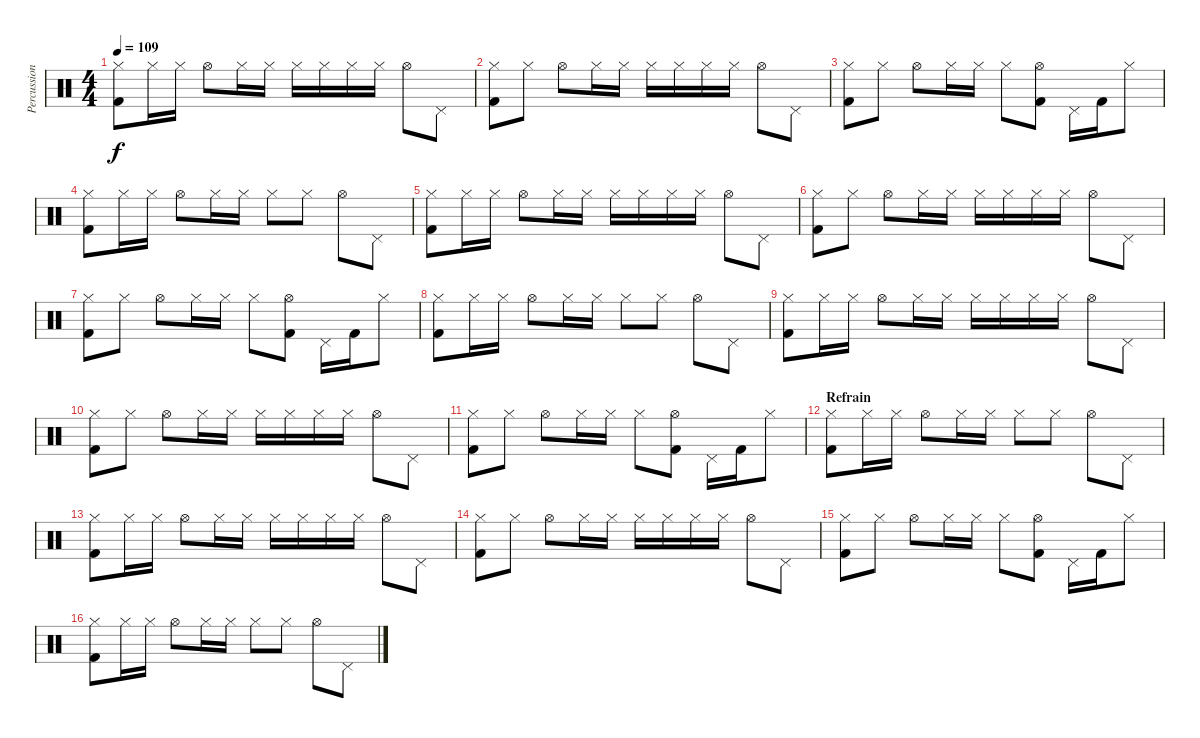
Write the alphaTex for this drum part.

\track ("Percussion" "Percussion") {instrument percussion}
\staff {score}
\articulation defaults
\ts (4 4)
\tempo 109
\clef neutral
\ks c
("Hi-Hat (closed)" "Kick (hit) 2").8{dy f} "Hi-Hat (closed)".16 "Hi-Hat (closed)".16 "Hi-Hat (open)".8 "Hi-Hat (closed)".16 "Hi-Hat (closed)".16 "Hi-Hat (closed)".16 "Hi-Hat (closed)".16 "Hi-Hat (closed)".16 "Hi-Hat (closed)".16 "Hi-Hat (open)".8 "Pedal Hi-Hat (hit)".8 |
("Hi-Hat (closed)" "Kick (hit) 2").8 "Hi-Hat (closed)".8 "Hi-Hat (open)".8 "Hi-Hat (closed)".16 "Hi-Hat (closed)".16 "Hi-Hat (closed)".16 "Hi-Hat (closed)".16 "Hi-Hat (closed)".16 "Hi-Hat (closed)".16 "Hi-Hat (open)".8 "Pedal Hi-Hat (hit)".8 |
("Hi-Hat (closed)" "Kick (hit) 2").8 "Hi-Hat (closed)".8 "Hi-Hat (open)".8 "Hi-Hat (closed)".16 "Hi-Hat (closed)".16 "Hi-Hat (closed)".8 ("Hi-Hat (open)" "Kick (hit) 2").8 "Pedal Hi-Hat (hit)".16 "Kick (hit) 2".16 "Hi-Hat (closed)".8 |
("Hi-Hat (closed)" "Kick (hit) 2").8{volume 7} "Hi-Hat (closed)".16 "Hi-Hat (closed)".16 "Hi-Hat (open)".8 "Hi-Hat (closed)".16 "Hi-Hat (closed)".16 "Hi-Hat (closed)".8 "Hi-Hat (closed)".8 "Hi-Hat (open)".8 "Pedal Hi-Hat (hit)".8 |
("Hi-Hat (closed)" "Kick (hit) 2").8 "Hi-Hat (closed)".16 "Hi-Hat (closed)".16 "Hi-Hat (open)".8 "Hi-Hat (closed)".16 "Hi-Hat (closed)".16 "Hi-Hat (closed)".16 "Hi-Hat (closed)".16 "Hi-Hat (closed)".16 "Hi-Hat (closed)".16 "Hi-Hat (open)".8 "Pedal Hi-Hat (hit)".8 |
("Hi-Hat (closed)" "Kick (hit) 2").8 "Hi-Hat (closed)".8 "Hi-Hat (open)".8 "Hi-Hat (closed)".16 "Hi-Hat (closed)".16 "Hi-Hat (closed)".16 "Hi-Hat (closed)".16 "Hi-Hat (closed)".16 "Hi-Hat (closed)".16 "Hi-Hat (open)".8 "Pedal Hi-Hat (hit)".8 |
("Hi-Hat (closed)" "Kick (hit) 2").8 "Hi-Hat (closed)".8 "Hi-Hat (open)".8 "Hi-Hat (closed)".16 "Hi-Hat (closed)".16 "Hi-Hat (closed)".8 ("Hi-Hat (open)" "Kick (hit) 2").8 "Pedal Hi-Hat (hit)".16 "Kick (hit) 2".16 "Hi-Hat (closed)".8 |
("Hi-Hat (closed)" "Kick (hit) 2").8{volume 7} "Hi-Hat (closed)".16 "Hi-Hat (closed)".16 "Hi-Hat (open)".8 "Hi-Hat (closed)".16 "Hi-Hat (closed)".16 "Hi-Hat (closed)".8 "Hi-Hat (closed)".8 "Hi-Hat (open)".8 "Pedal Hi-Hat (hit)".8 |
("Hi-Hat (closed)" "Kick (hit) 2").8 "Hi-Hat (closed)".16 "Hi-Hat (closed)".16 "Hi-Hat (open)".8 "Hi-Hat (closed)".16 "Hi-Hat (closed)".16 "Hi-Hat (closed)".16 "Hi-Hat (closed)".16 "Hi-Hat (closed)".16 "Hi-Hat (closed)".16 "Hi-Hat (open)".8 "Pedal Hi-Hat (hit)".8 |
("Hi-Hat (closed)" "Kick (hit) 2").8 "Hi-Hat (closed)".8 "Hi-Hat (open)".8 "Hi-Hat (closed)".16 "Hi-Hat (closed)".16 "Hi-Hat (closed)".16 "Hi-Hat (closed)".16 "Hi-Hat (closed)".16 "Hi-Hat (closed)".16 "Hi-Hat (open)".8 "Pedal Hi-Hat (hit)".8 |
("Hi-Hat (closed)" "Kick (hit) 2").8 "Hi-Hat (closed)".8 "Hi-Hat (open)".8 "Hi-Hat (closed)".16 "Hi-Hat (closed)".16 "Hi-Hat (closed)".8 ("Hi-Hat (open)" "Kick (hit) 2").8 "Pedal Hi-Hat (hit)".16 "Kick (hit) 2".16 "Hi-Hat (closed)".8 |
\section ("" "Refrain")
("Hi-Hat (closed)" "Kick (hit) 2").8{volume 7} "Hi-Hat (closed)".16 "Hi-Hat (closed)".16 "Hi-Hat (open)".8 "Hi-Hat (closed)".16 "Hi-Hat (closed)".16 "Hi-Hat (closed)".8 "Hi-Hat (closed)".8 "Hi-Hat (open)".8 "Pedal Hi-Hat (hit)".8 |
("Hi-Hat (closed)" "Kick (hit) 2").8 "Hi-Hat (closed)".16 "Hi-Hat (closed)".16 "Hi-Hat (open)".8 "Hi-Hat (closed)".16 "Hi-Hat (closed)".16 "Hi-Hat (closed)".16 "Hi-Hat (closed)".16 "Hi-Hat (closed)".16 "Hi-Hat (closed)".16 "Hi-Hat (open)".8 "Pedal Hi-Hat (hit)".8 |
("Hi-Hat (closed)" "Kick (hit) 2").8 "Hi-Hat (closed)".8 "Hi-Hat (open)".8 "Hi-Hat (closed)".16 "Hi-Hat (closed)".16 "Hi-Hat (closed)".16 "Hi-Hat (closed)".16 "Hi-Hat (closed)".16 "Hi-Hat (closed)".16 "Hi-Hat (open)".8 "Pedal Hi-Hat (hit)".8 |
("Hi-Hat (closed)" "Kick (hit) 2").8 "Hi-Hat (closed)".8 "Hi-Hat (open)".8 "Hi-Hat (closed)".16 "Hi-Hat (closed)".16 "Hi-Hat (closed)".8 ("Hi-Hat (open)" "Kick (hit) 2").8 "Pedal Hi-Hat (hit)".16 "Kick (hit) 2".16 "Hi-Hat (closed)".8 |
("Hi-Hat (closed)" "Kick (hit) 2").8{volume 7} "Hi-Hat (closed)".16 "Hi-Hat (closed)".16 "Hi-Hat (open)".8 "Hi-Hat (closed)".16 "Hi-Hat (closed)".16 "Hi-Hat (closed)".8 "Hi-Hat (closed)".8 "Hi-Hat (open)".8 "Pedal Hi-Hat (hit)".8
